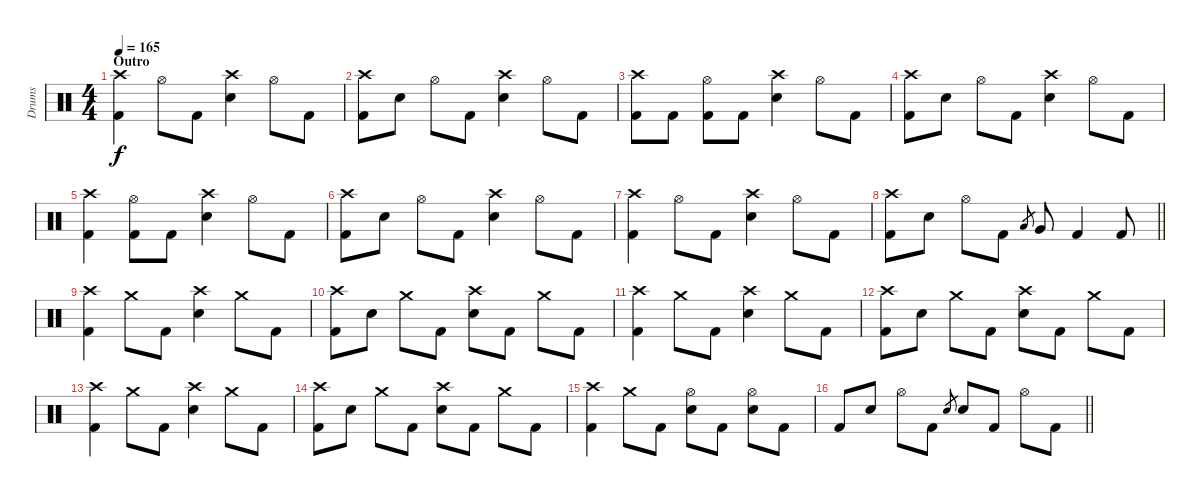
\track ("Drums" "Drums") {instrument percussion}
\staff {score}
\articulation defaults
\ts (4 4)
\section ("" "Outro")
\tempo 165
\clef neutral
\ks c
("Crash high (hit)" "Kick (hit) 2").4{dy f} "Hi-Hat (open)".8 "Kick (hit) 2".8 ("Crash high (hit)" "Electric Snare (hit)").4 "Hi-Hat (open)".8 "Kick (hit) 2".8 |
("Crash high (hit)" "Kick (hit) 2").8 "Electric Snare (hit)".8 "Hi-Hat (open)".8 "Kick (hit) 2".8 ("Crash high (hit)" "Electric Snare (hit)").4 "Hi-Hat (open)".8 "Kick (hit) 2".8 |
("Crash high (hit)" "Kick (hit) 2").8 "Kick (hit) 2".8 ("Hi-Hat (open)" "Kick (hit) 2").8 "Kick (hit) 2".8 ("Crash high (hit)" "Electric Snare (hit)").4 "Hi-Hat (open)".8 "Kick (hit) 2".8 |
("Crash high (hit)" "Kick (hit) 2").8 "Electric Snare (hit)".8 "Hi-Hat (open)".8 "Kick (hit) 2".8 ("Crash high (hit)" "Electric Snare (hit)").4 "Hi-Hat (open)".8 "Kick (hit) 2".8 |
("Crash high (hit)" "Kick (hit) 2").4 ("Hi-Hat (open)" "Kick (hit) 2").8 "Kick (hit) 2".8 ("Crash high (hit)" "Electric Snare (hit)").4 "Hi-Hat (open)".8 "Kick (hit) 2".8 |
("Crash high (hit)" "Kick (hit) 2").8 "Electric Snare (hit)".8 "Hi-Hat (open)".8 "Kick (hit) 2".8 ("Crash high (hit)" "Electric Snare (hit)").4 "Hi-Hat (open)".8 "Kick (hit) 2".8 |
("Crash high (hit)" "Kick (hit) 2").4 "Hi-Hat (open)".8 "Kick (hit) 2".8 ("Crash high (hit)" "Electric Snare (hit)").4 "Hi-Hat (open)".8 "Kick (hit) 2".8 |
\barLineRight lightlight
("Crash high (hit)" "Kick (hit) 2").8 "Electric Snare (hit)".8 "Hi-Hat (open)".8 "Kick (hit) 2".8 "Low Tom (hit)".8{gr} "Very Low Tom (hit)".8 "Kick (hit) 2".4 "Kick (hit) 2".8 |
\section ("" "")
("Crash high (hit)" "Kick (hit) 2").4 "Crash medium (hit)".8 "Kick (hit) 2".8 ("Crash high (hit)" "Electric Snare (hit)").4 "Crash medium (hit)".8 "Kick (hit) 2".8 |
("Crash high (hit)" "Kick (hit) 2").8 "Electric Snare (hit)".8 "Crash medium (hit)".8 "Kick (hit) 2".8 ("Crash high (hit)" "Electric Snare (hit)").8 "Kick (hit) 2".8 "Crash medium (hit)".8 "Kick (hit) 2".8 |
("Crash high (hit)" "Kick (hit) 2").4 "Crash medium (hit)".8 "Kick (hit) 2".8 ("Crash high (hit)" "Electric Snare (hit)").4 "Crash medium (hit)".8 "Kick (hit) 2".8 |
("Crash high (hit)" "Kick (hit) 2").8 "Electric Snare (hit)".8 "Crash medium (hit)".8 "Kick (hit) 2".8 ("Crash high (hit)" "Electric Snare (hit)").8 "Kick (hit) 2".8 "Crash medium (hit)".8 "Kick (hit) 2".8 |
("Crash high (hit)" "Kick (hit) 2").4 "Crash medium (hit)".8 "Kick (hit) 2".8 ("Crash high (hit)" "Electric Snare (hit)").4 "Crash medium (hit)".8 "Kick (hit) 2".8 |
("Crash high (hit)" "Kick (hit) 2").8 "Electric Snare (hit)".8 "Crash medium (hit)".8 "Kick (hit) 2".8 ("Crash high (hit)" "Electric Snare (hit)").8 "Kick (hit) 2".8 "Crash medium (hit)".8 "Kick (hit) 2".8 |
("Crash high (hit)" "Kick (hit) 2").4 "Crash medium (hit)".8 "Kick (hit) 2".8 ("Hi-Hat (open)" "Electric Snare (hit)").8 "Kick (hit) 2".8 ("Hi-Hat (open)" "Electric Snare (hit)").8 "Kick (hit) 2".8 |
\barLineRight lightlight "Kick (hit) 2".8 "Electric Snare (hit)".8 "Hi-Hat (open)".8 "Kick (hit) 2".8 "Electric Snare (hit)".8{gr} "Electric Snare (hit)".8 "Kick (hit) 2".8 "Hi-Hat (open)".8 "Kick (hit) 2".8
